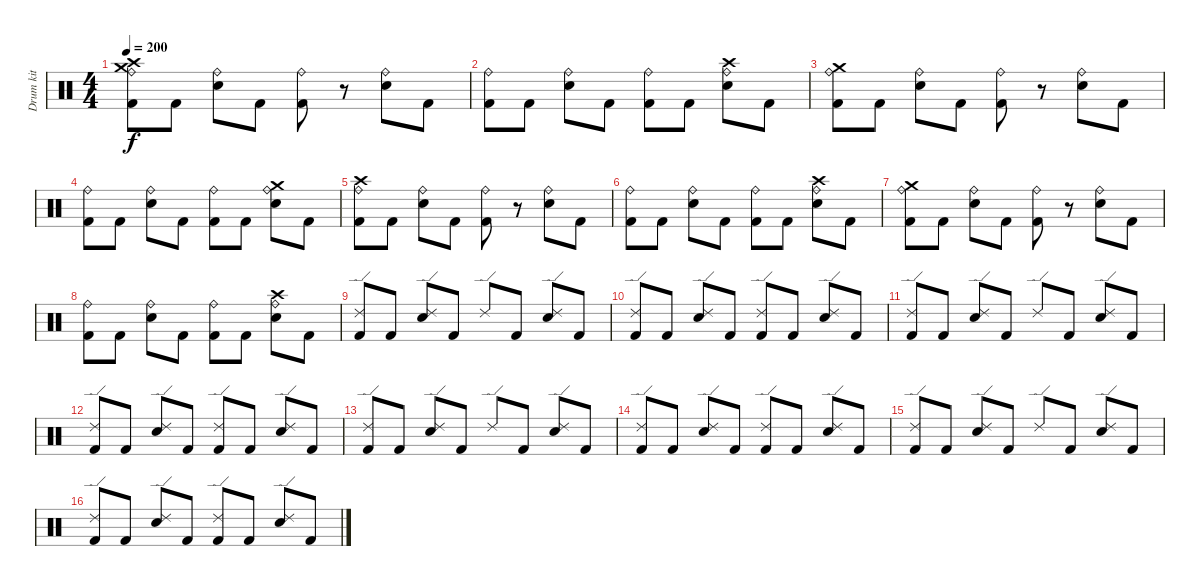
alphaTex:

\track ("Drum kit" "Drum kit") {instrument percussion}
\staff {score}
\articulation defaults
\ts (4 4)
\tempo 200
\clef neutral
\ks c
("Crash medium (hit)" "Crash high (hit)" "Kick (hit) 2" "Ride (bell)").8{dy f} "Kick (hit) 2".8 ("Electric Snare (hit)" "Ride (bell)").8 "Kick (hit) 2".8 ("Kick (hit) 2" "Ride (bell)").8 r.8 ("Electric Snare (hit)" "Ride (bell)").8 "Kick (hit) 2".8 |
("Kick (hit) 2" "Ride (bell)").8 "Kick (hit) 2".8 ("Electric Snare (hit)" "Ride (bell)").8 "Kick (hit) 2".8 ("Kick (hit) 2" "Ride (bell)").8 "Kick (hit) 2".8 ("Crash high (hit)" "Electric Snare (hit)" "Ride (bell)").8 "Kick (hit) 2".8 |
("Crash medium (hit)" "Kick (hit) 2" "Ride (bell)").8 "Kick (hit) 2".8 ("Electric Snare (hit)" "Ride (bell)").8 "Kick (hit) 2".8 ("Kick (hit) 2" "Ride (bell)").8 r.8 ("Electric Snare (hit)" "Ride (bell)").8 "Kick (hit) 2".8 |
("Kick (hit) 2" "Ride (bell)").8 "Kick (hit) 2".8 ("Electric Snare (hit)" "Ride (bell)").8 "Kick (hit) 2".8 ("Kick (hit) 2" "Ride (bell)").8 "Kick (hit) 2".8 ("Crash medium (hit)" "Electric Snare (hit)" "Ride (bell)").8 "Kick (hit) 2".8 |
("Crash high (hit)" "Kick (hit) 2" "Ride (bell)").8 "Kick (hit) 2".8 ("Electric Snare (hit)" "Ride (bell)").8 "Kick (hit) 2".8 ("Kick (hit) 2" "Ride (bell)").8 r.8 ("Electric Snare (hit)" "Ride (bell)").8 "Kick (hit) 2".8 |
("Kick (hit) 2" "Ride (bell)").8 "Kick (hit) 2".8 ("Electric Snare (hit)" "Ride (bell)").8 "Kick (hit) 2".8 ("Kick (hit) 2" "Ride (bell)").8 "Kick (hit) 2".8 ("Crash high (hit)" "Electric Snare (hit)" "Ride (bell)").8 "Kick (hit) 2".8 |
("Crash medium (hit)" "Kick (hit) 2" "Ride (bell)").8 "Kick (hit) 2".8 ("Electric Snare (hit)" "Ride (bell)").8 "Kick (hit) 2".8 ("Kick (hit) 2" "Ride (bell)").8 r.8 ("Electric Snare (hit)" "Ride (bell)").8 "Kick (hit) 2".8 |
("Kick (hit) 2" "Ride (bell)").8 "Kick (hit) 2".8 ("Electric Snare (hit)" "Ride (bell)").8 "Kick (hit) 2".8 ("Kick (hit) 2" "Ride (bell)").8 "Kick (hit) 2".8 ("Crash high (hit)" "Electric Snare (hit)" "Ride (bell)").8 "Kick (hit) 2".8 |
("Kick (hit) 2" "Ride (edge) 2").8 "Kick (hit) 2".8 ("Electric Snare (hit)" "Ride (edge) 2").8 "Kick (hit) 2".8 "Ride (edge) 2".8 "Kick (hit) 2".8 ("Electric Snare (hit)" "Ride (edge) 2").8 "Kick (hit) 2".8 |
("Kick (hit) 2" "Ride (edge) 2").8 "Kick (hit) 2".8 ("Electric Snare (hit)" "Ride (edge) 2").8 "Kick (hit) 2".8 ("Kick (hit) 2" "Ride (edge) 2").8 "Kick (hit) 2".8 ("Electric Snare (hit)" "Ride (edge) 2").8 "Kick (hit) 2".8 |
("Kick (hit) 2" "Ride (edge) 2").8 "Kick (hit) 2".8 ("Electric Snare (hit)" "Ride (edge) 2").8 "Kick (hit) 2".8 "Ride (edge) 2".8 "Kick (hit) 2".8 ("Electric Snare (hit)" "Ride (edge) 2").8 "Kick (hit) 2".8 |
("Kick (hit) 2" "Ride (edge) 2").8 "Kick (hit) 2".8 ("Electric Snare (hit)" "Ride (edge) 2").8 "Kick (hit) 2".8 ("Kick (hit) 2" "Ride (edge) 2").8 "Kick (hit) 2".8 ("Electric Snare (hit)" "Ride (edge) 2").8 "Kick (hit) 2".8 |
("Kick (hit) 2" "Ride (edge) 2").8 "Kick (hit) 2".8 ("Electric Snare (hit)" "Ride (edge) 2").8 "Kick (hit) 2".8 "Ride (edge) 2".8 "Kick (hit) 2".8 ("Electric Snare (hit)" "Ride (edge) 2").8 "Kick (hit) 2".8 |
("Kick (hit) 2" "Ride (edge) 2").8 "Kick (hit) 2".8 ("Electric Snare (hit)" "Ride (edge) 2").8 "Kick (hit) 2".8 ("Kick (hit) 2" "Ride (edge) 2").8 "Kick (hit) 2".8 ("Electric Snare (hit)" "Ride (edge) 2").8 "Kick (hit) 2".8 |
("Kick (hit) 2" "Ride (edge) 2").8 "Kick (hit) 2".8 ("Electric Snare (hit)" "Ride (edge) 2").8 "Kick (hit) 2".8 "Ride (edge) 2".8 "Kick (hit) 2".8 ("Electric Snare (hit)" "Ride (edge) 2").8 "Kick (hit) 2".8 |
("Kick (hit) 2" "Ride (edge) 2").8 "Kick (hit) 2".8 ("Electric Snare (hit)" "Ride (edge) 2").8 "Kick (hit) 2".8 ("Kick (hit) 2" "Ride (edge) 2").8 "Kick (hit) 2".8 ("Electric Snare (hit)" "Ride (edge) 2").8 "Kick (hit) 2".8
